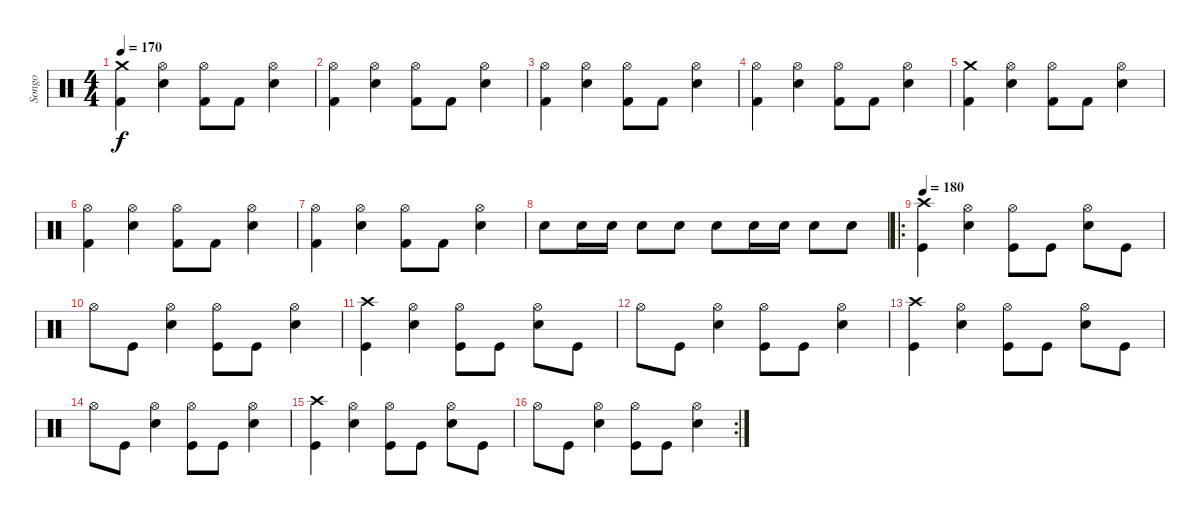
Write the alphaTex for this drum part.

\track ("Songo" "Songo") {instrument percussion}
\staff {score}
\articulation defaults
\ts (4 4)
\tempo 170
\clef neutral
\ks c
("Kick (hit) 2" "Crash medium (hit)").4{dy f} ("Electric Snare (hit)" "Hi-Hat (open)").4 ("Kick (hit) 2" "Hi-Hat (open)").8 "Kick (hit) 2".8 ("Electric Snare (hit)" "Hi-Hat (open)").4 |
("Kick (hit) 2" "Hi-Hat (open)").4 ("Electric Snare (hit)" "Hi-Hat (open)").4 ("Kick (hit) 2" "Hi-Hat (open)").8 "Kick (hit) 2".8 ("Electric Snare (hit)" "Hi-Hat (open)").4 |
("Kick (hit) 2" "Hi-Hat (open)").4 ("Electric Snare (hit)" "Hi-Hat (open)").4 ("Kick (hit) 2" "Hi-Hat (open)").8 "Kick (hit) 2".8 ("Electric Snare (hit)" "Hi-Hat (open)").4 |
("Kick (hit) 2" "Hi-Hat (open)").4 ("Electric Snare (hit)" "Hi-Hat (open)").4 ("Kick (hit) 2" "Hi-Hat (open)").8 "Kick (hit) 2".8 ("Electric Snare (hit)" "Hi-Hat (open)").4 |
("Kick (hit) 2" "Crash medium (hit)").4 ("Electric Snare (hit)" "Hi-Hat (open)").4 ("Kick (hit) 2" "Hi-Hat (open)").8 "Kick (hit) 2".8 ("Electric Snare (hit)" "Hi-Hat (open)").4 |
("Kick (hit) 2" "Hi-Hat (open)").4 ("Electric Snare (hit)" "Hi-Hat (open)").4 ("Kick (hit) 2" "Hi-Hat (open)").8 "Kick (hit) 2".8 ("Electric Snare (hit)" "Hi-Hat (open)").4 |
("Kick (hit) 2" "Hi-Hat (open)").4 ("Electric Snare (hit)" "Hi-Hat (open)").4 ("Kick (hit) 2" "Hi-Hat (open)").8 "Kick (hit) 2".8 ("Electric Snare (hit)" "Hi-Hat (open)").4 |
"Snare (hit) 2".8 "Snare (hit) 2".16 "Snare (hit) 2".16 "Snare (hit) 2".8 "Snare (hit) 2".8 "Snare (hit) 2".8 "Snare (hit) 2".16 "Snare (hit) 2".16 "Snare (hit) 2".8 "Snare (hit) 2".8 |
\ro
\tempo 180
("Kick (hit)" "Crash high (hit)").4 ("Hi-Hat (open)" "Snare (hit) 2").4 ("Hi-Hat (open)" "Kick (hit)").8 "Kick (hit)".8 ("Hi-Hat (open)" "Snare (hit) 2").8 "Kick (hit)".8 |
"Hi-Hat (open)".8 "Kick (hit)".8 ("Hi-Hat (open)" "Snare (hit) 2").4 ("Hi-Hat (open)" "Kick (hit)").8 "Kick (hit)".8 ("Hi-Hat (open)" "Snare (hit) 2").4 |
("Kick (hit)" "Crash high (hit)").4 ("Hi-Hat (open)" "Snare (hit) 2").4 ("Hi-Hat (open)" "Kick (hit)").8 "Kick (hit)".8 ("Hi-Hat (open)" "Snare (hit) 2").8 "Kick (hit)".8 |
"Hi-Hat (open)".8 "Kick (hit)".8 ("Hi-Hat (open)" "Snare (hit) 2").4 ("Hi-Hat (open)" "Kick (hit)").8 "Kick (hit)".8 ("Hi-Hat (open)" "Snare (hit) 2").4 |
("Kick (hit)" "Crash high (hit)").4 ("Hi-Hat (open)" "Snare (hit) 2").4 ("Hi-Hat (open)" "Kick (hit)").8 "Kick (hit)".8 ("Hi-Hat (open)" "Snare (hit) 2").8 "Kick (hit)".8 |
"Hi-Hat (open)".8 "Kick (hit)".8 ("Hi-Hat (open)" "Snare (hit) 2").4 ("Hi-Hat (open)" "Kick (hit)").8 "Kick (hit)".8 ("Hi-Hat (open)" "Snare (hit) 2").4 |
("Kick (hit)" "Crash high (hit)").4 ("Hi-Hat (open)" "Snare (hit) 2").4 ("Hi-Hat (open)" "Kick (hit)").8 "Kick (hit)".8 ("Hi-Hat (open)" "Snare (hit) 2").8 "Kick (hit)".8 |
\rc 2 "Hi-Hat (open)".8 "Kick (hit)".8
("Hi-Hat (open)" "Snare (hit) 2").4 ("Hi-Hat (open)" "Kick (hit)").8 "Kick (hit)".8 ("Hi-Hat (open)" "Snare (hit) 2").4
